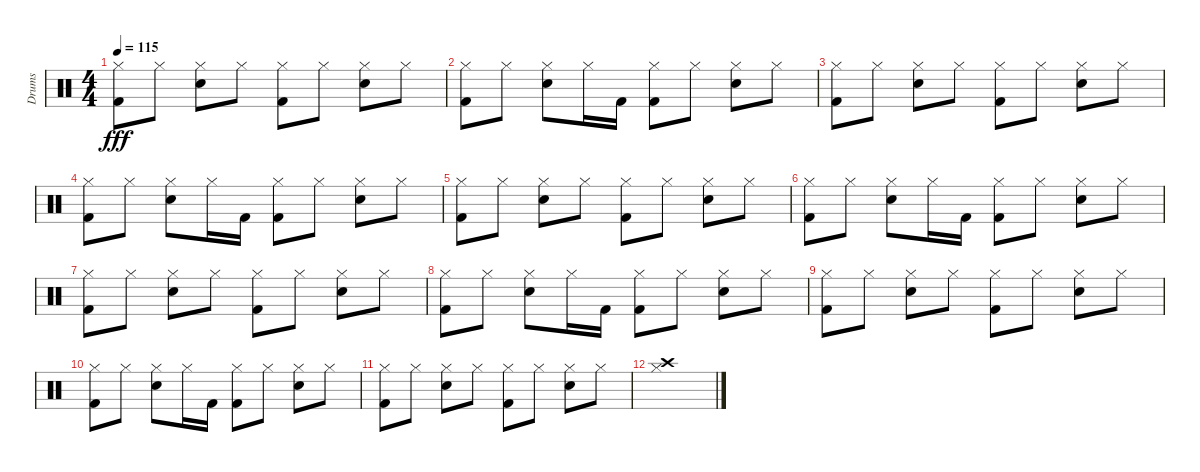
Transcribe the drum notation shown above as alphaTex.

\track ("Drums" "Drums") {instrument percussion}
\staff {score}
\articulation defaults
\ts (4 4)
\tempo 115
\clef neutral
\ks c
("Kick (hit) 2" "Hi-Hat (closed)").8{dy fff} "Hi-Hat (closed)".8 ("Hi-Hat (closed)" "Electric Snare (hit)").8 "Hi-Hat (closed)".8 ("Kick (hit) 2" "Hi-Hat (closed)").8 "Hi-Hat (closed)".8 ("Hi-Hat (closed)" "Electric Snare (hit)").8 "Hi-Hat (closed)".8 |
("Kick (hit) 2" "Hi-Hat (closed)").8 "Hi-Hat (closed)".8 ("Hi-Hat (closed)" "Electric Snare (hit)").8 "Hi-Hat (closed)".16 "Kick (hit) 2".16 ("Kick (hit) 2" "Hi-Hat (closed)").8 "Hi-Hat (closed)".8 ("Electric Snare (hit)" "Hi-Hat (closed)").8 "Hi-Hat (closed)".8 |
("Kick (hit) 2" "Hi-Hat (closed)").8 "Hi-Hat (closed)".8 ("Electric Snare (hit)" "Hi-Hat (closed)").8 "Hi-Hat (closed)".8 ("Kick (hit) 2" "Hi-Hat (closed)").8 "Hi-Hat (closed)".8 ("Electric Snare (hit)" "Hi-Hat (closed)").8 "Hi-Hat (closed)".8 |
("Kick (hit) 2" "Hi-Hat (closed)").8 "Hi-Hat (closed)".8 ("Electric Snare (hit)" "Hi-Hat (closed)").8 "Hi-Hat (closed)".16 "Kick (hit) 2".16 ("Kick (hit) 2" "Hi-Hat (closed)").8 "Hi-Hat (closed)".8 ("Electric Snare (hit)" "Hi-Hat (closed)").8 "Hi-Hat (closed)".8 |
("Kick (hit) 2" "Hi-Hat (closed)").8 "Hi-Hat (closed)".8 ("Electric Snare (hit)" "Hi-Hat (closed)").8 "Hi-Hat (closed)".8 ("Kick (hit) 2" "Hi-Hat (closed)").8 "Hi-Hat (closed)".8 ("Electric Snare (hit)" "Hi-Hat (closed)").8 "Hi-Hat (closed)".8 |
("Kick (hit) 2" "Hi-Hat (closed)").8 "Hi-Hat (closed)".8 ("Electric Snare (hit)" "Hi-Hat (closed)").8 "Hi-Hat (closed)".16 "Kick (hit) 2".16 ("Kick (hit) 2" "Hi-Hat (closed)").8 "Hi-Hat (closed)".8 ("Electric Snare (hit)" "Hi-Hat (closed)").8 "Hi-Hat (closed)".8 |
("Kick (hit) 2" "Hi-Hat (closed)").8 "Hi-Hat (closed)".8 ("Electric Snare (hit)" "Hi-Hat (closed)").8 "Hi-Hat (closed)".8 ("Kick (hit) 2" "Hi-Hat (closed)").8 "Hi-Hat (closed)".8 ("Electric Snare (hit)" "Hi-Hat (closed)").8 "Hi-Hat (closed)".8 |
("Kick (hit) 2" "Hi-Hat (closed)").8 "Hi-Hat (closed)".8 ("Electric Snare (hit)" "Hi-Hat (closed)").8 "Hi-Hat (closed)".16 "Kick (hit) 2".16 ("Kick (hit) 2" "Hi-Hat (closed)").8 "Hi-Hat (closed)".8 ("Electric Snare (hit)" "Hi-Hat (closed)").8 "Hi-Hat (closed)".8 |
("Kick (hit) 2" "Hi-Hat (closed)").8 "Hi-Hat (closed)".8 ("Electric Snare (hit)" "Hi-Hat (closed)").8 "Hi-Hat (closed)".8 ("Kick (hit) 2" "Hi-Hat (closed)").8 "Hi-Hat (closed)".8 ("Electric Snare (hit)" "Hi-Hat (closed)").8 "Hi-Hat (closed)".8 |
("Kick (hit) 2" "Hi-Hat (closed)").8 "Hi-Hat (closed)".8 ("Electric Snare (hit)" "Hi-Hat (closed)").8 "Hi-Hat (closed)".16 "Kick (hit) 2".16 ("Kick (hit) 2" "Hi-Hat (closed)").8 "Hi-Hat (closed)".8 ("Electric Snare (hit)" "Hi-Hat (closed)").8 "Hi-Hat (closed)".8 |
("Kick (hit) 2" "Hi-Hat (closed)").8 "Hi-Hat (closed)".8 ("Electric Snare (hit)" "Hi-Hat (closed)").8 "Hi-Hat (closed)".8 ("Kick (hit) 2" "Hi-Hat (closed)").8 "Hi-Hat (closed)".8 ("Electric Snare (hit)" "Hi-Hat (closed)").8 "Hi-Hat (closed)".8 |
("Crash high (hit)" "Hi-Hat (closed)").1
